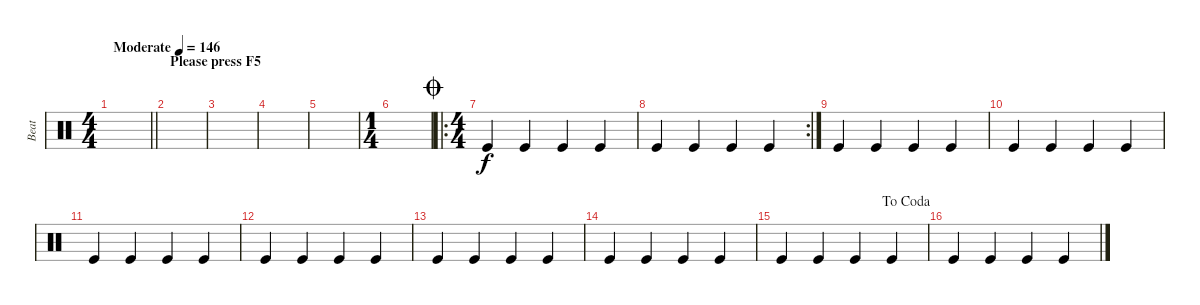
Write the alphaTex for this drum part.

\track ("Beat" "Beat") {instrument percussion}
\staff {score}
\articulation defaults
\ts (4 4)
\tempo (146 "Moderate")
\clef neutral
\barLineRight lightlight
\ks c
|
\section ("" "Please press F5")
|
|
|
|
\ts (1 4)
|
\ro
\ts (4 4)
\jump coda "Kick (hit)".4 "Kick (hit)".4 "Kick (hit)".4 "Kick (hit)".4
|
\rc 2 "Kick (hit)".4 "Kick (hit)".4 "Kick (hit)".4 "Kick (hit)".4
|
"Kick (hit)".4 "Kick (hit)".4 "Kick (hit)".4 "Kick (hit)".4 |
"Kick (hit)".4 "Kick (hit)".4 "Kick (hit)".4 "Kick (hit)".4 |
"Kick (hit)".4 "Kick (hit)".4 "Kick (hit)".4 "Kick (hit)".4 |
"Kick (hit)".4 "Kick (hit)".4 "Kick (hit)".4 "Kick (hit)".4 |
"Kick (hit)".4 "Kick (hit)".4 "Kick (hit)".4 "Kick (hit)".4 |
"Kick (hit)".4 "Kick (hit)".4 "Kick (hit)".4 "Kick (hit)".4 |
\jump dacoda "Kick (hit)".4 "Kick (hit)".4 "Kick (hit)".4 "Kick (hit)".4
|
"Kick (hit)".4 "Kick (hit)".4 "Kick (hit)".4 "Kick (hit)".4
